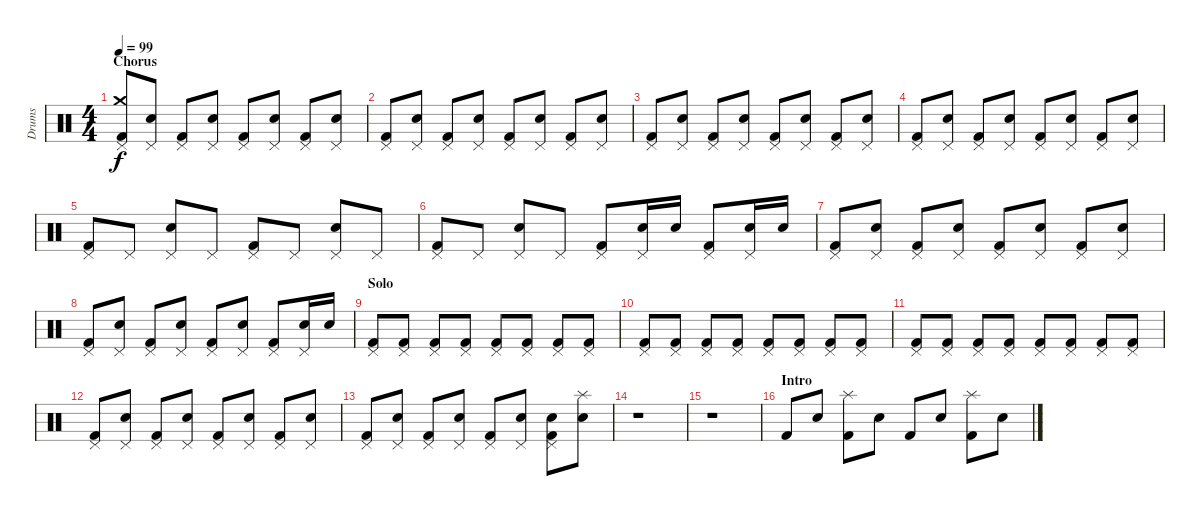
\track ("Drums" "Drums") {instrument percussion}
\staff {score}
\articulation defaults
\ts (4 4)
\section ("" "Chorus")
\tempo 99
\clef neutral
\ks c
("Pedal Hi-Hat (hit)" "Crash medium (hit)" "Kick (hit) 2").8{dy f} ("Pedal Hi-Hat (hit)" "Snare (hit) 2").8 ("Pedal Hi-Hat (hit)" "Kick (hit) 2").8 ("Pedal Hi-Hat (hit)" "Snare (hit) 2").8 ("Pedal Hi-Hat (hit)" "Kick (hit) 2").8 ("Pedal Hi-Hat (hit)" "Snare (hit) 2").8 ("Pedal Hi-Hat (hit)" "Kick (hit) 2").8 ("Pedal Hi-Hat (hit)" "Snare (hit) 2").8 |
("Pedal Hi-Hat (hit)" "Kick (hit) 2").8 ("Pedal Hi-Hat (hit)" "Snare (hit) 2").8 ("Pedal Hi-Hat (hit)" "Kick (hit) 2").8 ("Pedal Hi-Hat (hit)" "Snare (hit) 2").8 ("Pedal Hi-Hat (hit)" "Kick (hit) 2").8 ("Pedal Hi-Hat (hit)" "Snare (hit) 2").8 ("Pedal Hi-Hat (hit)" "Kick (hit) 2").8 ("Pedal Hi-Hat (hit)" "Snare (hit) 2").8 |
("Pedal Hi-Hat (hit)" "Kick (hit) 2").8 ("Pedal Hi-Hat (hit)" "Snare (hit) 2").8 ("Pedal Hi-Hat (hit)" "Kick (hit) 2").8 ("Pedal Hi-Hat (hit)" "Snare (hit) 2").8 ("Pedal Hi-Hat (hit)" "Kick (hit) 2").8 ("Pedal Hi-Hat (hit)" "Snare (hit) 2").8 ("Pedal Hi-Hat (hit)" "Kick (hit) 2").8 ("Pedal Hi-Hat (hit)" "Snare (hit) 2").8 |
("Pedal Hi-Hat (hit)" "Kick (hit) 2").8 ("Pedal Hi-Hat (hit)" "Snare (hit) 2").8 ("Pedal Hi-Hat (hit)" "Kick (hit) 2").8 ("Pedal Hi-Hat (hit)" "Snare (hit) 2").8 ("Pedal Hi-Hat (hit)" "Kick (hit) 2").8 ("Pedal Hi-Hat (hit)" "Snare (hit) 2").8 ("Pedal Hi-Hat (hit)" "Kick (hit) 2").8 ("Pedal Hi-Hat (hit)" "Snare (hit) 2").8 |
("Pedal Hi-Hat (hit)" "Kick (hit) 2").8 "Pedal Hi-Hat (hit)".8 ("Pedal Hi-Hat (hit)" "Snare (hit) 2").8 "Pedal Hi-Hat (hit)".8 ("Pedal Hi-Hat (hit)" "Kick (hit) 2").8 "Pedal Hi-Hat (hit)".8 ("Pedal Hi-Hat (hit)" "Snare (hit) 2").8 "Pedal Hi-Hat (hit)".8 |
("Pedal Hi-Hat (hit)" "Kick (hit) 2").8 "Pedal Hi-Hat (hit)".8 ("Pedal Hi-Hat (hit)" "Snare (hit) 2").8 "Pedal Hi-Hat (hit)".8 ("Pedal Hi-Hat (hit)" "Kick (hit) 2").8 ("Pedal Hi-Hat (hit)" "Snare (hit) 2").16 "Snare (hit) 2".16 ("Pedal Hi-Hat (hit)" "Kick (hit) 2").8 ("Pedal Hi-Hat (hit)" "Snare (hit) 2").16 "Snare (hit) 2".16 |
("Pedal Hi-Hat (hit)" "Kick (hit) 2").8 ("Pedal Hi-Hat (hit)" "Snare (hit) 2").8 ("Pedal Hi-Hat (hit)" "Kick (hit) 2").8 ("Pedal Hi-Hat (hit)" "Snare (hit) 2").8 ("Pedal Hi-Hat (hit)" "Kick (hit) 2").8 ("Pedal Hi-Hat (hit)" "Snare (hit) 2").8 ("Pedal Hi-Hat (hit)" "Kick (hit) 2").8 ("Pedal Hi-Hat (hit)" "Snare (hit) 2").8 |
("Pedal Hi-Hat (hit)" "Kick (hit) 2").8 ("Pedal Hi-Hat (hit)" "Snare (hit) 2").8 ("Pedal Hi-Hat (hit)" "Kick (hit) 2").8 ("Pedal Hi-Hat (hit)" "Snare (hit) 2").8 ("Pedal Hi-Hat (hit)" "Kick (hit) 2").8 ("Pedal Hi-Hat (hit)" "Snare (hit) 2").8 ("Pedal Hi-Hat (hit)" "Kick (hit) 2").8 ("Pedal Hi-Hat (hit)" "Snare (hit) 2").16 "Snare (hit) 2".16 |
\section ("" "Solo")
("Pedal Hi-Hat (hit)" "Kick (hit) 2").8 ("Pedal Hi-Hat (hit)" "Kick (hit) 2").8 ("Pedal Hi-Hat (hit)" "Kick (hit) 2").8 ("Pedal Hi-Hat (hit)" "Kick (hit) 2").8 ("Pedal Hi-Hat (hit)" "Kick (hit) 2").8 ("Pedal Hi-Hat (hit)" "Kick (hit) 2").8 ("Pedal Hi-Hat (hit)" "Kick (hit) 2").8 ("Pedal Hi-Hat (hit)" "Kick (hit) 2").8 |
("Pedal Hi-Hat (hit)" "Kick (hit) 2").8 ("Pedal Hi-Hat (hit)" "Kick (hit) 2").8 ("Pedal Hi-Hat (hit)" "Kick (hit) 2").8 ("Pedal Hi-Hat (hit)" "Kick (hit) 2").8 ("Pedal Hi-Hat (hit)" "Kick (hit) 2").8 ("Pedal Hi-Hat (hit)" "Kick (hit) 2").8 ("Pedal Hi-Hat (hit)" "Kick (hit) 2").8 ("Pedal Hi-Hat (hit)" "Kick (hit) 2").8 |
("Pedal Hi-Hat (hit)" "Kick (hit) 2").8 ("Pedal Hi-Hat (hit)" "Kick (hit) 2").8 ("Pedal Hi-Hat (hit)" "Kick (hit) 2").8 ("Pedal Hi-Hat (hit)" "Kick (hit) 2").8 ("Pedal Hi-Hat (hit)" "Kick (hit) 2").8 ("Pedal Hi-Hat (hit)" "Kick (hit) 2").8 ("Pedal Hi-Hat (hit)" "Kick (hit) 2").8 ("Pedal Hi-Hat (hit)" "Kick (hit) 2").8 |
("Pedal Hi-Hat (hit)" "Kick (hit) 2").8 ("Pedal Hi-Hat (hit)" "Snare (hit) 2").8 ("Pedal Hi-Hat (hit)" "Kick (hit) 2").8 ("Pedal Hi-Hat (hit)" "Snare (hit) 2").8 ("Pedal Hi-Hat (hit)" "Kick (hit) 2").8 ("Pedal Hi-Hat (hit)" "Snare (hit) 2").8 ("Pedal Hi-Hat (hit)" "Kick (hit) 2").8 ("Pedal Hi-Hat (hit)" "Snare (hit) 2").8 |
("Pedal Hi-Hat (hit)" "Kick (hit) 2").8 ("Pedal Hi-Hat (hit)" "Snare (hit) 2").8 ("Pedal Hi-Hat (hit)" "Kick (hit) 2").8 ("Pedal Hi-Hat (hit)" "Snare (hit) 2").8 ("Pedal Hi-Hat (hit)" "Kick (hit) 2").8 ("Pedal Hi-Hat (hit)" "Snare (hit) 2").8 ("Pedal Hi-Hat (hit)" "Snare (hit) 2" "Kick (hit) 2").8 ("Splash (hit)" "Snare (hit) 2").8 |
r.1 |
r.1 |
\section ("" "Intro")
"Kick (hit) 2".8 "Snare (hit) 2".8 ("Splash (hit)" "Kick (hit) 2").8 "Snare (hit) 2".8 "Kick (hit) 2".8 "Snare (hit) 2".8 ("Splash (hit)" "Kick (hit) 2").8 "Snare (hit) 2".8
